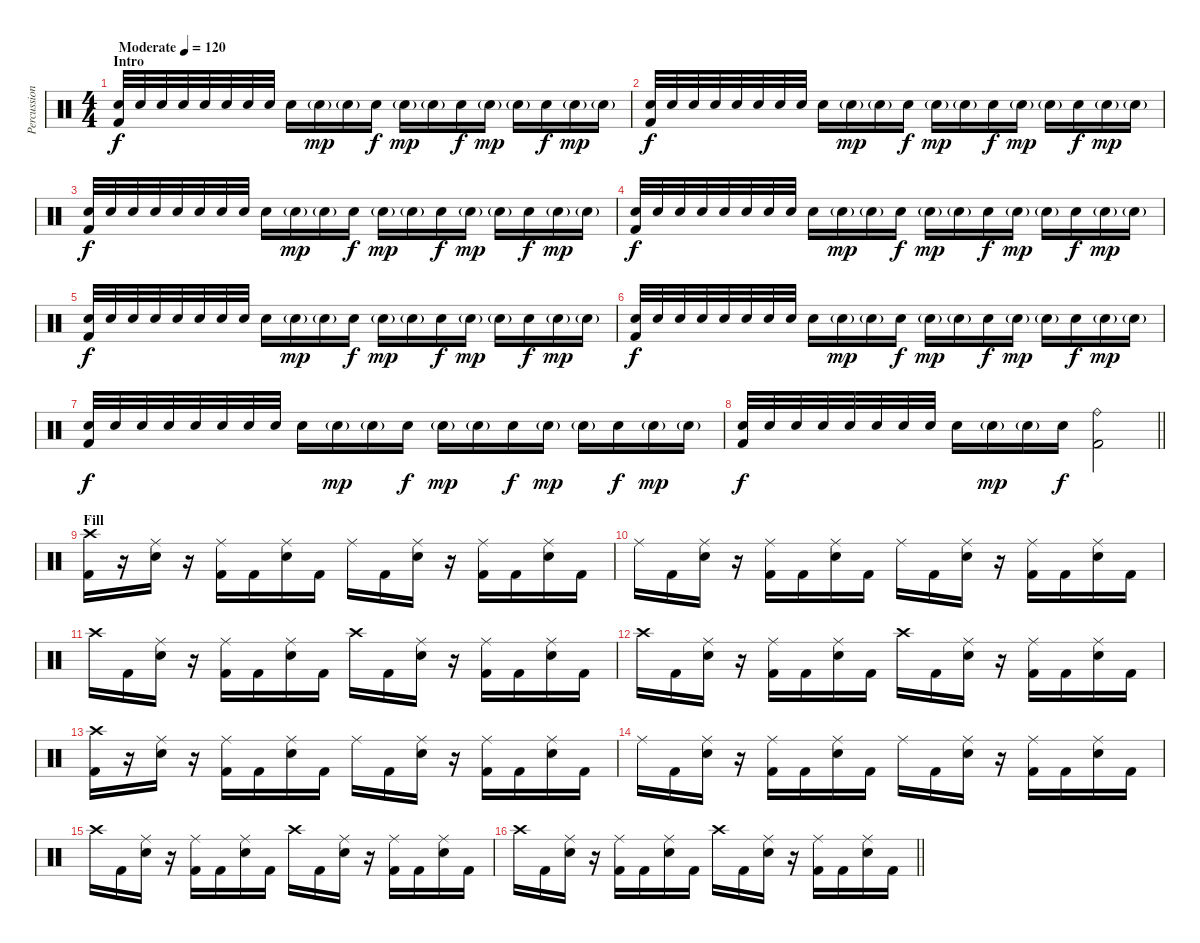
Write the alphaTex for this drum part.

\track ("Percussion" "Percussion") {instrument percussion}
\staff {score}
\articulation defaults
\ts (4 4)
\section ("" "Intro")
\tempo (120 "Moderate")
\clef neutral
\ks c
("Electric Snare (hit)" "Kick (hit) 2").32{dy f} "Electric Snare (hit)".32 "Electric Snare (hit)".32 "Electric Snare (hit)".32 "Electric Snare (hit)".32 "Electric Snare (hit)".32 "Electric Snare (hit)".32 "Electric Snare (hit)".32 "Electric Snare (hit)".16 "Electric Snare (hit)"{g}.16{dy mp} "Electric Snare (hit)"{g}.16 "Electric Snare (hit)".16{dy f} "Electric Snare (hit)"{g}.16{dy mp} "Electric Snare (hit)"{g}.16 "Electric Snare (hit)".16{dy f} "Electric Snare (hit)"{g}.16{dy mp} "Electric Snare (hit)"{g}.16 "Electric Snare (hit)".16{dy f} "Electric Snare (hit)"{g}.16{dy mp} "Electric Snare (hit)"{g}.16 |
("Electric Snare (hit)" "Kick (hit) 2").32{dy f} "Electric Snare (hit)".32 "Electric Snare (hit)".32 "Electric Snare (hit)".32 "Electric Snare (hit)".32 "Electric Snare (hit)".32 "Electric Snare (hit)".32 "Electric Snare (hit)".32 "Electric Snare (hit)".16 "Electric Snare (hit)"{g}.16{dy mp} "Electric Snare (hit)"{g}.16 "Electric Snare (hit)".16{dy f} "Electric Snare (hit)"{g}.16{dy mp} "Electric Snare (hit)"{g}.16 "Electric Snare (hit)".16{dy f} "Electric Snare (hit)"{g}.16{dy mp} "Electric Snare (hit)"{g}.16 "Electric Snare (hit)".16{dy f} "Electric Snare (hit)"{g}.16{dy mp} "Electric Snare (hit)"{g}.16 |
("Electric Snare (hit)" "Kick (hit) 2").32{dy f} "Electric Snare (hit)".32 "Electric Snare (hit)".32 "Electric Snare (hit)".32 "Electric Snare (hit)".32 "Electric Snare (hit)".32 "Electric Snare (hit)".32 "Electric Snare (hit)".32 "Electric Snare (hit)".16 "Electric Snare (hit)"{g}.16{dy mp} "Electric Snare (hit)"{g}.16 "Electric Snare (hit)".16{dy f} "Electric Snare (hit)"{g}.16{dy mp} "Electric Snare (hit)"{g}.16 "Electric Snare (hit)".16{dy f} "Electric Snare (hit)"{g}.16{dy mp} "Electric Snare (hit)"{g}.16 "Electric Snare (hit)".16{dy f} "Electric Snare (hit)"{g}.16{dy mp} "Electric Snare (hit)"{g}.16 |
("Electric Snare (hit)" "Kick (hit) 2").32{dy f} "Electric Snare (hit)".32 "Electric Snare (hit)".32 "Electric Snare (hit)".32 "Electric Snare (hit)".32 "Electric Snare (hit)".32 "Electric Snare (hit)".32 "Electric Snare (hit)".32 "Electric Snare (hit)".16 "Electric Snare (hit)"{g}.16{dy mp} "Electric Snare (hit)"{g}.16 "Electric Snare (hit)".16{dy f} "Electric Snare (hit)"{g}.16{dy mp} "Electric Snare (hit)"{g}.16 "Electric Snare (hit)".16{dy f} "Electric Snare (hit)"{g}.16{dy mp} "Electric Snare (hit)"{g}.16 "Electric Snare (hit)".16{dy f} "Electric Snare (hit)"{g}.16{dy mp} "Electric Snare (hit)"{g}.16 |
("Electric Snare (hit)" "Kick (hit) 2").32{dy f} "Electric Snare (hit)".32 "Electric Snare (hit)".32 "Electric Snare (hit)".32 "Electric Snare (hit)".32 "Electric Snare (hit)".32 "Electric Snare (hit)".32 "Electric Snare (hit)".32 "Electric Snare (hit)".16 "Electric Snare (hit)"{g}.16{dy mp} "Electric Snare (hit)"{g}.16 "Electric Snare (hit)".16{dy f} "Electric Snare (hit)"{g}.16{dy mp} "Electric Snare (hit)"{g}.16 "Electric Snare (hit)".16{dy f} "Electric Snare (hit)"{g}.16{dy mp} "Electric Snare (hit)"{g}.16 "Electric Snare (hit)".16{dy f} "Electric Snare (hit)"{g}.16{dy mp} "Electric Snare (hit)"{g}.16 |
("Electric Snare (hit)" "Kick (hit) 2").32{dy f} "Electric Snare (hit)".32 "Electric Snare (hit)".32 "Electric Snare (hit)".32 "Electric Snare (hit)".32 "Electric Snare (hit)".32 "Electric Snare (hit)".32 "Electric Snare (hit)".32 "Electric Snare (hit)".16 "Electric Snare (hit)"{g}.16{dy mp} "Electric Snare (hit)"{g}.16 "Electric Snare (hit)".16{dy f} "Electric Snare (hit)"{g}.16{dy mp} "Electric Snare (hit)"{g}.16 "Electric Snare (hit)".16{dy f} "Electric Snare (hit)"{g}.16{dy mp} "Electric Snare (hit)"{g}.16 "Electric Snare (hit)".16{dy f} "Electric Snare (hit)"{g}.16{dy mp} "Electric Snare (hit)"{g}.16 |
("Electric Snare (hit)" "Kick (hit) 2").32{dy f} "Electric Snare (hit)".32 "Electric Snare (hit)".32 "Electric Snare (hit)".32 "Electric Snare (hit)".32 "Electric Snare (hit)".32 "Electric Snare (hit)".32 "Electric Snare (hit)".32 "Electric Snare (hit)".16 "Electric Snare (hit)"{g}.16{dy mp} "Electric Snare (hit)"{g}.16 "Electric Snare (hit)".16{dy f} "Electric Snare (hit)"{g}.16{dy mp} "Electric Snare (hit)"{g}.16 "Electric Snare (hit)".16{dy f} "Electric Snare (hit)"{g}.16{dy mp} "Electric Snare (hit)"{g}.16 "Electric Snare (hit)".16{dy f} "Electric Snare (hit)"{g}.16{dy mp} "Electric Snare (hit)"{g}.16 |
\barLineRight lightlight
("Electric Snare (hit)" "Kick (hit) 2").32{dy f} "Electric Snare (hit)".32 "Electric Snare (hit)".32 "Electric Snare (hit)".32 "Electric Snare (hit)".32 "Electric Snare (hit)".32 "Electric Snare (hit)".32 "Electric Snare (hit)".32 "Electric Snare (hit)".16 "Electric Snare (hit)"{g}.16{dy mp} "Electric Snare (hit)"{g}.16 "Electric Snare (hit)".16{dy f} ("Ride (bell)" "Kick (hit) 2").2 |
\section ("" "Fill")
("Crash high (hit)" "Kick (hit) 2").16 r.16 ("Ride (middle)" "Electric Snare (hit)").16 r.16 ("Ride (middle)" "Kick (hit) 2").16 "Kick (hit) 2".16 ("Ride (middle)" "Electric Snare (hit)").16 "Kick (hit) 2".16 "Ride (middle)".16 "Kick (hit) 2".16 ("Ride (middle)" "Electric Snare (hit)").16 r.16 ("Ride (middle)" "Kick (hit) 2").16 "Kick (hit) 2".16 ("Ride (middle)" "Electric Snare (hit)").16 "Kick (hit) 2".16 |
"Ride (middle)".16 "Kick (hit) 2".16 ("Ride (middle)" "Electric Snare (hit)").16 r.16 ("Ride (middle)" "Kick (hit) 2").16 "Kick (hit) 2".16 ("Ride (middle)" "Electric Snare (hit)").16 "Kick (hit) 2".16 "Ride (middle)".16 "Kick (hit) 2".16 ("Ride (middle)" "Electric Snare (hit)").16 r.16 ("Ride (middle)" "Kick (hit) 2").16 "Kick (hit) 2".16 ("Ride (middle)" "Electric Snare (hit)").16 "Kick (hit) 2".16 |
"Crash high (hit)".16 "Kick (hit) 2".16 ("Ride (middle)" "Electric Snare (hit)").16 r.16 ("Ride (middle)" "Kick (hit) 2").16 "Kick (hit) 2".16 ("Ride (middle)" "Electric Snare (hit)").16 "Kick (hit) 2".16 "Crash high (hit)".16 "Kick (hit) 2".16 ("Ride (middle)" "Electric Snare (hit)").16 r.16 ("Ride (middle)" "Kick (hit) 2").16 "Kick (hit) 2".16 ("Ride (middle)" "Electric Snare (hit)").16 "Kick (hit) 2".16 |
"Crash high (hit)".16 "Kick (hit) 2".16 ("Ride (middle)" "Electric Snare (hit)").16 r.16 ("Ride (middle)" "Kick (hit) 2").16 "Kick (hit) 2".16 ("Ride (middle)" "Electric Snare (hit)").16 "Kick (hit) 2".16 "Crash high (hit)".16 "Kick (hit) 2".16 ("Ride (middle)" "Electric Snare (hit)").16 r.16 ("Ride (middle)" "Kick (hit) 2").16 "Kick (hit) 2".16 ("Ride (middle)" "Electric Snare (hit)").16 "Kick (hit) 2".16 |
("Crash high (hit)" "Kick (hit) 2").16 r.16 ("Ride (middle)" "Electric Snare (hit)").16 r.16 ("Ride (middle)" "Kick (hit) 2").16 "Kick (hit) 2".16 ("Ride (middle)" "Electric Snare (hit)").16 "Kick (hit) 2".16 "Ride (middle)".16 "Kick (hit) 2".16 ("Ride (middle)" "Electric Snare (hit)").16 r.16 ("Ride (middle)" "Kick (hit) 2").16 "Kick (hit) 2".16 ("Ride (middle)" "Electric Snare (hit)").16 "Kick (hit) 2".16 |
"Ride (middle)".16 "Kick (hit) 2".16 ("Ride (middle)" "Electric Snare (hit)").16 r.16 ("Ride (middle)" "Kick (hit) 2").16 "Kick (hit) 2".16 ("Ride (middle)" "Electric Snare (hit)").16 "Kick (hit) 2".16 "Ride (middle)".16 "Kick (hit) 2".16 ("Ride (middle)" "Electric Snare (hit)").16 r.16 ("Ride (middle)" "Kick (hit) 2").16 "Kick (hit) 2".16 ("Ride (middle)" "Electric Snare (hit)").16 "Kick (hit) 2".16 |
"Crash high (hit)".16 "Kick (hit) 2".16 ("Ride (middle)" "Electric Snare (hit)").16 r.16 ("Ride (middle)" "Kick (hit) 2").16 "Kick (hit) 2".16 ("Ride (middle)" "Electric Snare (hit)").16 "Kick (hit) 2".16 "Crash high (hit)".16 "Kick (hit) 2".16 ("Ride (middle)" "Electric Snare (hit)").16 r.16 ("Ride (middle)" "Kick (hit) 2").16 "Kick (hit) 2".16 ("Ride (middle)" "Electric Snare (hit)").16 "Kick (hit) 2".16 |
\barLineRight lightlight "Crash high (hit)".16 "Kick (hit) 2".16
("Ride (middle)" "Electric Snare (hit)").16 r.16 ("Ride (middle)" "Kick (hit) 2").16 "Kick (hit) 2".16 ("Ride (middle)" "Electric Snare (hit)").16 "Kick (hit) 2".16 "Crash high (hit)".16 "Kick (hit) 2".16 ("Ride (middle)" "Electric Snare (hit)").16 r.16 ("Ride (middle)" "Kick (hit) 2").16 "Kick (hit) 2".16 ("Ride (middle)" "Electric Snare (hit)").16 "Kick (hit) 2".16
